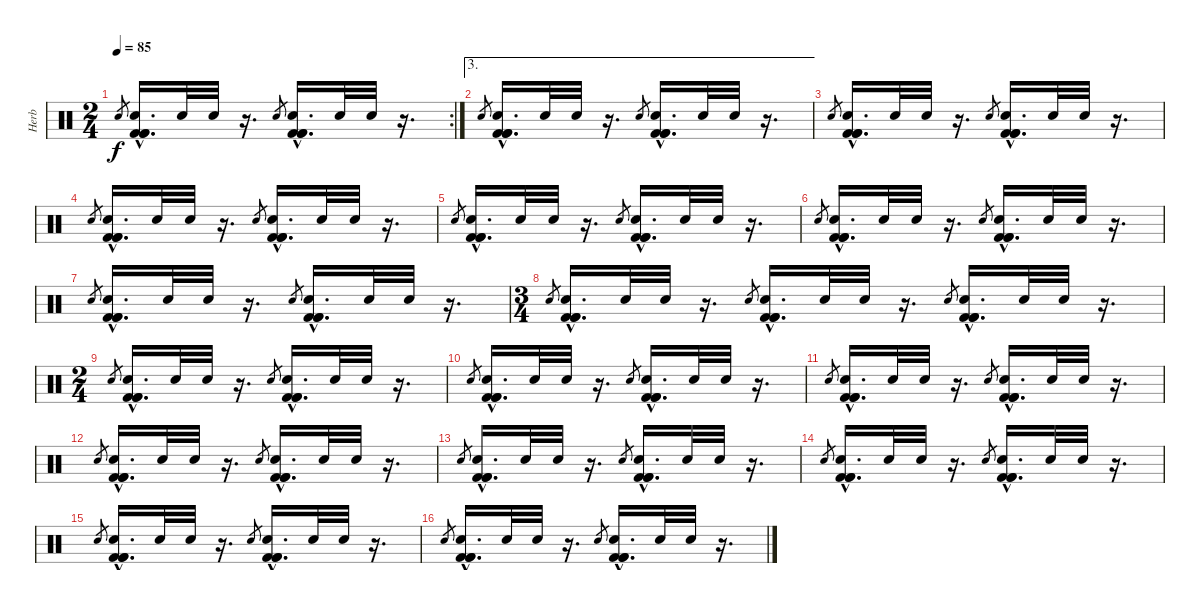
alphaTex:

\track ("Herb" "Herb") {instrument percussion}
\staff {score}
\articulation defaults
\rc 2
\ts (2 4)
\tempo 85
\clef neutral
\ks c "Snare (hit) 2".8{gr dy f}
("Snare (hit) 2"{hac} "Kick (hit) 2"{hac} "Kick (hit) 2"{hac} "Kick (hit) 2"{hac}).16{d} "Snare (hit) 2".32 "Snare (hit) 2".32 r.16{d} "Snare (hit) 2".8{gr} ("Snare (hit) 2"{hac} "Kick (hit) 2"{hac} "Kick (hit) 2"{hac} "Kick (hit) 2"{hac}).16{d} "Snare (hit) 2".32 "Snare (hit) 2".32 r.16{d} |
\ae 3 "Snare (hit) 2".8{gr}
("Snare (hit) 2"{hac} "Kick (hit) 2"{hac} "Kick (hit) 2"{hac} "Kick (hit) 2"{hac}).16{d} "Snare (hit) 2".32 "Snare (hit) 2".32 r.16{d} "Snare (hit) 2".8{gr} ("Snare (hit) 2"{hac} "Kick (hit) 2"{hac} "Kick (hit) 2"{hac} "Kick (hit) 2"{hac}).16{d} "Snare (hit) 2".32 "Snare (hit) 2".32 r.16{d} |
"Snare (hit) 2".8{gr} ("Snare (hit) 2"{hac} "Kick (hit) 2"{hac} "Kick (hit) 2"{hac} "Kick (hit) 2"{hac}).16{d} "Snare (hit) 2".32 "Snare (hit) 2".32 r.16{d} "Snare (hit) 2".8{gr} ("Snare (hit) 2"{hac} "Kick (hit) 2"{hac} "Kick (hit) 2"{hac} "Kick (hit) 2"{hac}).16{d} "Snare (hit) 2".32 "Snare (hit) 2".32 r.16{d} |
"Snare (hit) 2".8{gr} ("Snare (hit) 2"{hac} "Kick (hit) 2"{hac} "Kick (hit) 2"{hac} "Kick (hit) 2"{hac}).16{d} "Snare (hit) 2".32 "Snare (hit) 2".32 r.16{d} "Snare (hit) 2".8{gr} ("Snare (hit) 2"{hac} "Kick (hit) 2"{hac} "Kick (hit) 2"{hac} "Kick (hit) 2"{hac}).16{d} "Snare (hit) 2".32 "Snare (hit) 2".32 r.16{d} |
"Snare (hit) 2".8{gr} ("Snare (hit) 2"{hac} "Kick (hit) 2"{hac} "Kick (hit) 2"{hac} "Kick (hit) 2"{hac}).16{d} "Snare (hit) 2".32 "Snare (hit) 2".32 r.16{d} "Snare (hit) 2".8{gr} ("Snare (hit) 2"{hac} "Kick (hit) 2"{hac} "Kick (hit) 2"{hac} "Kick (hit) 2"{hac}).16{d} "Snare (hit) 2".32 "Snare (hit) 2".32 r.16{d} |
"Snare (hit) 2".8{gr} ("Snare (hit) 2"{hac} "Kick (hit) 2"{hac} "Kick (hit) 2"{hac} "Kick (hit) 2"{hac}).16{d} "Snare (hit) 2".32 "Snare (hit) 2".32 r.16{d} "Snare (hit) 2".8{gr} ("Snare (hit) 2"{hac} "Kick (hit) 2"{hac} "Kick (hit) 2"{hac} "Kick (hit) 2"{hac}).16{d} "Snare (hit) 2".32 "Snare (hit) 2".32 r.16{d} |
"Snare (hit) 2".8{gr} ("Snare (hit) 2"{hac} "Kick (hit) 2"{hac} "Kick (hit) 2"{hac} "Kick (hit) 2"{hac}).16{d} "Snare (hit) 2".32 "Snare (hit) 2".32 r.16{d} "Snare (hit) 2".8{gr} ("Snare (hit) 2"{hac} "Kick (hit) 2"{hac} "Kick (hit) 2"{hac} "Kick (hit) 2"{hac}).16{d} "Snare (hit) 2".32 "Snare (hit) 2".32 r.16{d} |
\ts (3 4)
"Snare (hit) 2".8{gr} ("Snare (hit) 2"{hac} "Kick (hit) 2"{hac} "Kick (hit) 2"{hac} "Kick (hit) 2"{hac}).16{d} "Snare (hit) 2".32 "Snare (hit) 2".32 r.16{d} "Snare (hit) 2".8{gr} ("Snare (hit) 2"{hac} "Kick (hit) 2"{hac} "Kick (hit) 2"{hac} "Kick (hit) 2"{hac}).16{d} "Snare (hit) 2".32 "Snare (hit) 2".32 r.16{d} "Snare (hit) 2".8{gr} ("Snare (hit) 2"{hac} "Kick (hit) 2"{hac} "Kick (hit) 2"{hac} "Kick (hit) 2"{hac}).16{d} "Snare (hit) 2".32 "Snare (hit) 2".32 r.16{d} |
\ts (2 4)
"Snare (hit) 2".8{gr} ("Snare (hit) 2"{hac} "Kick (hit) 2"{hac} "Kick (hit) 2"{hac} "Kick (hit) 2"{hac}).16{d} "Snare (hit) 2".32 "Snare (hit) 2".32 r.16{d} "Snare (hit) 2".8{gr} ("Snare (hit) 2"{hac} "Kick (hit) 2"{hac} "Kick (hit) 2"{hac} "Kick (hit) 2"{hac}).16{d} "Snare (hit) 2".32 "Snare (hit) 2".32 r.16{d} |
"Snare (hit) 2".8{gr} ("Snare (hit) 2"{hac} "Kick (hit) 2"{hac} "Kick (hit) 2"{hac} "Kick (hit) 2"{hac}).16{d} "Snare (hit) 2".32 "Snare (hit) 2".32 r.16{d} "Snare (hit) 2".8{gr} ("Snare (hit) 2"{hac} "Kick (hit) 2"{hac} "Kick (hit) 2"{hac} "Kick (hit) 2"{hac}).16{d} "Snare (hit) 2".32 "Snare (hit) 2".32 r.16{d} |
"Snare (hit) 2".8{gr} ("Snare (hit) 2"{hac} "Kick (hit) 2"{hac} "Kick (hit) 2"{hac} "Kick (hit) 2"{hac}).16{d} "Snare (hit) 2".32 "Snare (hit) 2".32 r.16{d} "Snare (hit) 2".8{gr} ("Snare (hit) 2"{hac} "Kick (hit) 2"{hac} "Kick (hit) 2"{hac} "Kick (hit) 2"{hac}).16{d} "Snare (hit) 2".32 "Snare (hit) 2".32 r.16{d} |
"Snare (hit) 2".8{gr} ("Snare (hit) 2"{hac} "Kick (hit) 2"{hac} "Kick (hit) 2"{hac} "Kick (hit) 2"{hac}).16{d} "Snare (hit) 2".32 "Snare (hit) 2".32 r.16{d} "Snare (hit) 2".8{gr} ("Snare (hit) 2"{hac} "Kick (hit) 2"{hac} "Kick (hit) 2"{hac} "Kick (hit) 2"{hac}).16{d} "Snare (hit) 2".32 "Snare (hit) 2".32 r.16{d} |
"Snare (hit) 2".8{gr} ("Snare (hit) 2"{hac} "Kick (hit) 2"{hac} "Kick (hit) 2"{hac} "Kick (hit) 2"{hac}).16{d} "Snare (hit) 2".32 "Snare (hit) 2".32 r.16{d} "Snare (hit) 2".8{gr} ("Snare (hit) 2"{hac} "Kick (hit) 2"{hac} "Kick (hit) 2"{hac} "Kick (hit) 2"{hac}).16{d} "Snare (hit) 2".32 "Snare (hit) 2".32 r.16{d} |
"Snare (hit) 2".8{gr} ("Snare (hit) 2"{hac} "Kick (hit) 2"{hac} "Kick (hit) 2"{hac} "Kick (hit) 2"{hac}).16{d} "Snare (hit) 2".32 "Snare (hit) 2".32 r.16{d} "Snare (hit) 2".8{gr} ("Snare (hit) 2"{hac} "Kick (hit) 2"{hac} "Kick (hit) 2"{hac} "Kick (hit) 2"{hac}).16{d} "Snare (hit) 2".32 "Snare (hit) 2".32 r.16{d} |
"Snare (hit) 2".8{gr} ("Snare (hit) 2"{hac} "Kick (hit) 2"{hac} "Kick (hit) 2"{hac} "Kick (hit) 2"{hac}).16{d} "Snare (hit) 2".32 "Snare (hit) 2".32 r.16{d} "Snare (hit) 2".8{gr} ("Snare (hit) 2"{hac} "Kick (hit) 2"{hac} "Kick (hit) 2"{hac} "Kick (hit) 2"{hac}).16{d} "Snare (hit) 2".32 "Snare (hit) 2".32 r.16{d} |
"Snare (hit) 2".8{gr} ("Snare (hit) 2"{hac} "Kick (hit) 2"{hac} "Kick (hit) 2"{hac} "Kick (hit) 2"{hac}).16{d} "Snare (hit) 2".32 "Snare (hit) 2".32 r.16{d} "Snare (hit) 2".8{gr} ("Snare (hit) 2"{hac} "Kick (hit) 2"{hac} "Kick (hit) 2"{hac} "Kick (hit) 2"{hac}).16{d} "Snare (hit) 2".32 "Snare (hit) 2".32 r.16{d}
